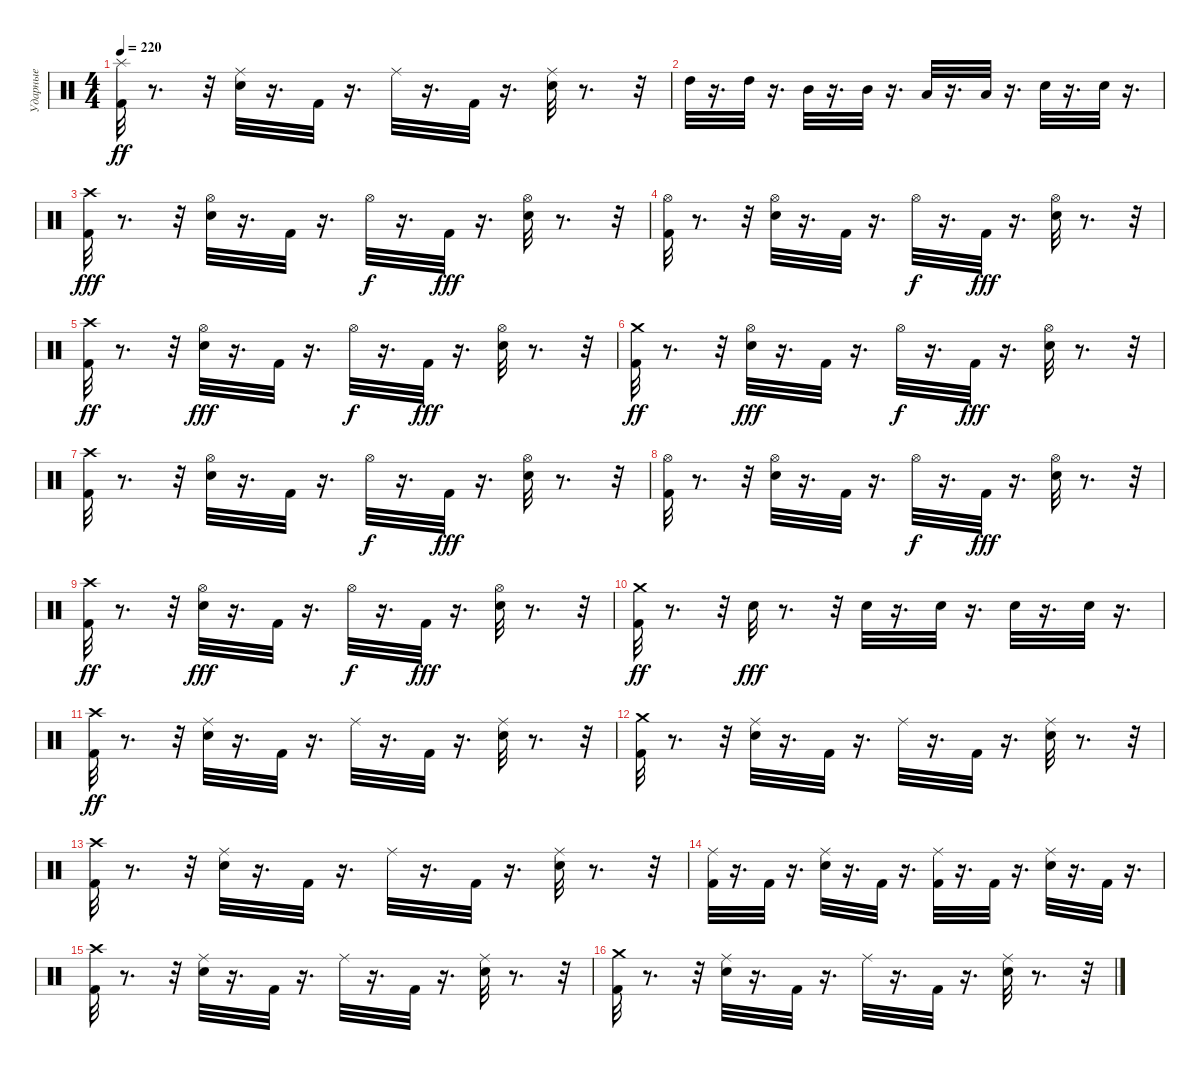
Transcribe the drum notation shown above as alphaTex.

\track ("Ударные" "Ударные") {instrument percussion}
\staff {score}
\articulation defaults
\ts (4 4)
\tempo 220
\clef neutral
\ks c
("Splash (hit)" "Kick (hit) 2").32{dy ff} r.8{d} r.32 ("Ride (middle)" "Snare (hit) 2").32 r.16{d} "Kick (hit) 2".32 r.16{d} "Ride (middle)".32 r.16{d} "Kick (hit) 2".32 r.16{d} ("Ride (middle)" "Snare (hit) 2").32 r.8{d} r.32 |
"High Tom (hit)".32 r.16{d} "High Tom (hit)".32 r.16{d} "Mid Tom (hit)".32 r.16{d} "Mid Tom (hit)".32 r.16{d} "Low Tom (hit)".32 r.16{d} "Low Tom (hit)".32 r.16{d} "Snare (hit) 2".32 r.16{d} "Snare (hit) 2".32 r.16{d} |
("Crash high (hit)" "Kick (hit) 2").32{dy fff} r.8{d} r.32 ("Hi-Hat (open)" "Snare (hit) 2").32 r.16{d} "Kick (hit) 2".32 r.16{d} "Hi-Hat (open)".32{dy f} r.16{d} "Kick (hit) 2".32{dy fff} r.16{d} ("Hi-Hat (open)" "Snare (hit) 2").32 r.8{d} r.32 |
("Hi-Hat (open)" "Kick (hit) 2").32 r.8{d} r.32 ("Hi-Hat (open)" "Snare (hit) 2").32 r.16{d} "Kick (hit) 2".32 r.16{d} "Hi-Hat (open)".32{dy f} r.16{d} "Kick (hit) 2".32{dy fff} r.16{d} ("Hi-Hat (open)" "Snare (hit) 2").32 r.8{d} r.32 |
("Kick (hit) 2" "Crash high (hit)").32{dy ff} r.8{d} r.32 ("Snare (hit) 2" "Hi-Hat (open)").32{dy fff} r.16{d} "Kick (hit) 2".32 r.16{d} "Hi-Hat (open)".32{dy f} r.16{d} "Kick (hit) 2".32{dy fff} r.16{d} ("Snare (hit) 2" "Hi-Hat (open)").32 r.8{d} r.32 |
("Kick (hit) 2" "Crash medium (hit)").32{dy ff} r.8{d} r.32 ("Snare (hit) 2" "Hi-Hat (open)").32{dy fff} r.16{d} "Kick (hit) 2".32 r.16{d} "Hi-Hat (open)".32{dy f} r.16{d} "Kick (hit) 2".32{dy fff} r.16{d} ("Snare (hit) 2" "Hi-Hat (open)").32 r.8{d} r.32 |
("Crash high (hit)" "Kick (hit) 2").32 r.8{d} r.32 ("Hi-Hat (open)" "Snare (hit) 2").32 r.16{d} "Kick (hit) 2".32 r.16{d} "Hi-Hat (open)".32{dy f} r.16{d} "Kick (hit) 2".32{dy fff} r.16{d} ("Hi-Hat (open)" "Snare (hit) 2").32 r.8{d} r.32 |
("Hi-Hat (open)" "Kick (hit) 2").32 r.8{d} r.32 ("Hi-Hat (open)" "Snare (hit) 2").32 r.16{d} "Kick (hit) 2".32 r.16{d} "Hi-Hat (open)".32{dy f} r.16{d} "Kick (hit) 2".32{dy fff} r.16{d} ("Hi-Hat (open)" "Snare (hit) 2").32 r.8{d} r.32 |
("Kick (hit) 2" "Crash high (hit)").32{dy ff} r.8{d} r.32 ("Snare (hit) 2" "Hi-Hat (open)").32{dy fff} r.16{d} "Kick (hit) 2".32 r.16{d} "Hi-Hat (open)".32{dy f} r.16{d} "Kick (hit) 2".32{dy fff} r.16{d} ("Snare (hit) 2" "Hi-Hat (open)").32 r.8{d} r.32 |
("Kick (hit) 2" "Crash medium (hit)").32{dy ff} r.8{d} r.32 "Snare (hit) 2".32{dy fff} r.8{d} r.32 "Snare (hit) 2".32 r.16{d} "Snare (hit) 2".32 r.16{d} "Snare (hit) 2".32 r.16{d} "Snare (hit) 2".32 r.16{d} |
("Kick (hit) 2" "Crash high (hit)").32{dy ff} r.8{d} r.32 ("Ride (middle)" "Snare (hit) 2").32 r.16{d} "Kick (hit) 2".32 r.16{d} "Ride (middle)".32 r.16{d} "Kick (hit) 2".32 r.16{d} ("Ride (middle)" "Snare (hit) 2").32 r.8{d} r.32 |
("Crash medium (hit)" "Kick (hit) 2").32 r.8{d} r.32 ("Snare (hit) 2" "Ride (middle)").32 r.16{d} "Kick (hit) 2".32 r.16{d} "Ride (middle)".32 r.16{d} "Kick (hit) 2".32 r.16{d} ("Snare (hit) 2" "Ride (middle)").32 r.8{d} r.32 |
("Kick (hit) 2" "Crash high (hit)").32 r.8{d} r.32 ("Snare (hit) 2" "Ride (middle)").32 r.16{d} "Kick (hit) 2".32 r.16{d} "Ride (middle)".32 r.16{d} "Kick (hit) 2".32 r.16{d} ("Snare (hit) 2" "Ride (middle)").32 r.8{d} r.32 |
("Ride (middle)" "Kick (hit) 2").32 r.16{d} "Kick (hit) 2".32 r.16{d} ("Ride (middle)" "Snare (hit) 2").32 r.16{d} "Kick (hit) 2".32 r.16{d} ("Ride (middle)" "Kick (hit) 2").32 r.16{d} "Kick (hit) 2".32 r.16{d} ("Ride (middle)" "Snare (hit) 2").32 r.16{d} "Kick (hit) 2".32 r.16{d} |
("Kick (hit) 2" "Crash high (hit)").32 r.8{d} r.32 ("Ride (middle)" "Snare (hit) 2").32 r.16{d} "Kick (hit) 2".32 r.16{d} "Ride (middle)".32 r.16{d} "Kick (hit) 2".32 r.16{d} ("Ride (middle)" "Snare (hit) 2").32 r.8{d} r.32 |
("Crash medium (hit)" "Kick (hit) 2").32 r.8{d} r.32 ("Snare (hit) 2" "Ride (middle)").32 r.16{d} "Kick (hit) 2".32 r.16{d} "Ride (middle)".32 r.16{d} "Kick (hit) 2".32 r.16{d} ("Snare (hit) 2" "Ride (middle)").32 r.8{d} r.32
